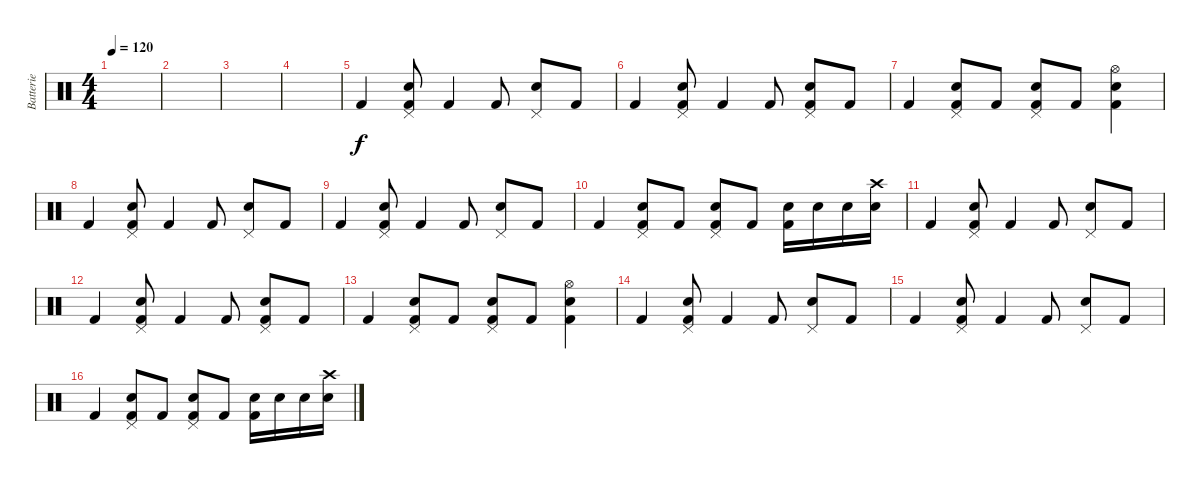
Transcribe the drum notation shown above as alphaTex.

\track ("Batterie" "Batterie") {instrument percussion}
\staff {score}
\articulation defaults
\ts (4 4)
\tempo 120
\clef neutral
\ks c
|
|
|
|
"Kick (hit) 2".4 ("Snare (hit) 2" "Kick (hit) 2" "Pedal Hi-Hat (hit)").8 "Kick (hit) 2".4 "Kick (hit) 2".8 ("Snare (hit) 2" "Pedal Hi-Hat (hit)").8 "Kick (hit) 2".8 |
"Kick (hit) 2".4 ("Snare (hit) 2" "Kick (hit) 2" "Pedal Hi-Hat (hit)").8 "Kick (hit) 2".4 "Kick (hit) 2".8 ("Snare (hit) 2" "Kick (hit) 2" "Pedal Hi-Hat (hit)").8 "Kick (hit) 2".8 |
"Kick (hit) 2".4 ("Snare (hit) 2" "Kick (hit) 2" "Pedal Hi-Hat (hit)").8 "Kick (hit) 2".8 ("Snare (hit) 2" "Kick (hit) 2" "Pedal Hi-Hat (hit)").8 "Kick (hit) 2".8 ("Snare (hit) 2" "Kick (hit) 2" "Hi-Hat (open)").4 |
"Kick (hit) 2".4 ("Snare (hit) 2" "Kick (hit) 2" "Pedal Hi-Hat (hit)").8 "Kick (hit) 2".4 "Kick (hit) 2".8 ("Snare (hit) 2" "Pedal Hi-Hat (hit)").8 "Kick (hit) 2".8 |
"Kick (hit) 2".4 ("Snare (hit) 2" "Kick (hit) 2" "Pedal Hi-Hat (hit)").8 "Kick (hit) 2".4 "Kick (hit) 2".8 ("Snare (hit) 2" "Pedal Hi-Hat (hit)").8 "Kick (hit) 2".8 |
"Kick (hit) 2".4 ("Snare (hit) 2" "Kick (hit) 2" "Pedal Hi-Hat (hit)").8 "Kick (hit) 2".8 ("Snare (hit) 2" "Kick (hit) 2" "Pedal Hi-Hat (hit)").8 "Kick (hit) 2".8 ("Snare (hit) 2" "Kick (hit) 2").16 "Snare (hit) 2".16 "Snare (hit) 2".16 ("Snare (hit) 2" "Crash high (hit)").16 |
"Kick (hit) 2".4 ("Snare (hit) 2" "Kick (hit) 2" "Pedal Hi-Hat (hit)").8 "Kick (hit) 2".4 "Kick (hit) 2".8 ("Snare (hit) 2" "Pedal Hi-Hat (hit)").8 "Kick (hit) 2".8 |
"Kick (hit) 2".4 ("Snare (hit) 2" "Kick (hit) 2" "Pedal Hi-Hat (hit)").8 "Kick (hit) 2".4 "Kick (hit) 2".8 ("Snare (hit) 2" "Kick (hit) 2" "Pedal Hi-Hat (hit)").8 "Kick (hit) 2".8 |
"Kick (hit) 2".4 ("Snare (hit) 2" "Kick (hit) 2" "Pedal Hi-Hat (hit)").8 "Kick (hit) 2".8 ("Snare (hit) 2" "Kick (hit) 2" "Pedal Hi-Hat (hit)").8 "Kick (hit) 2".8 ("Snare (hit) 2" "Kick (hit) 2" "Hi-Hat (open)").4 |
"Kick (hit) 2".4 ("Snare (hit) 2" "Kick (hit) 2" "Pedal Hi-Hat (hit)").8 "Kick (hit) 2".4 "Kick (hit) 2".8 ("Snare (hit) 2" "Pedal Hi-Hat (hit)").8 "Kick (hit) 2".8 |
"Kick (hit) 2".4 ("Snare (hit) 2" "Kick (hit) 2" "Pedal Hi-Hat (hit)").8 "Kick (hit) 2".4 "Kick (hit) 2".8 ("Snare (hit) 2" "Pedal Hi-Hat (hit)").8 "Kick (hit) 2".8 |
"Kick (hit) 2".4 ("Snare (hit) 2" "Kick (hit) 2" "Pedal Hi-Hat (hit)").8 "Kick (hit) 2".8 ("Snare (hit) 2" "Kick (hit) 2" "Pedal Hi-Hat (hit)").8 "Kick (hit) 2".8 ("Snare (hit) 2" "Kick (hit) 2").16 "Snare (hit) 2".16 "Snare (hit) 2".16 ("Snare (hit) 2" "Crash high (hit)").16
